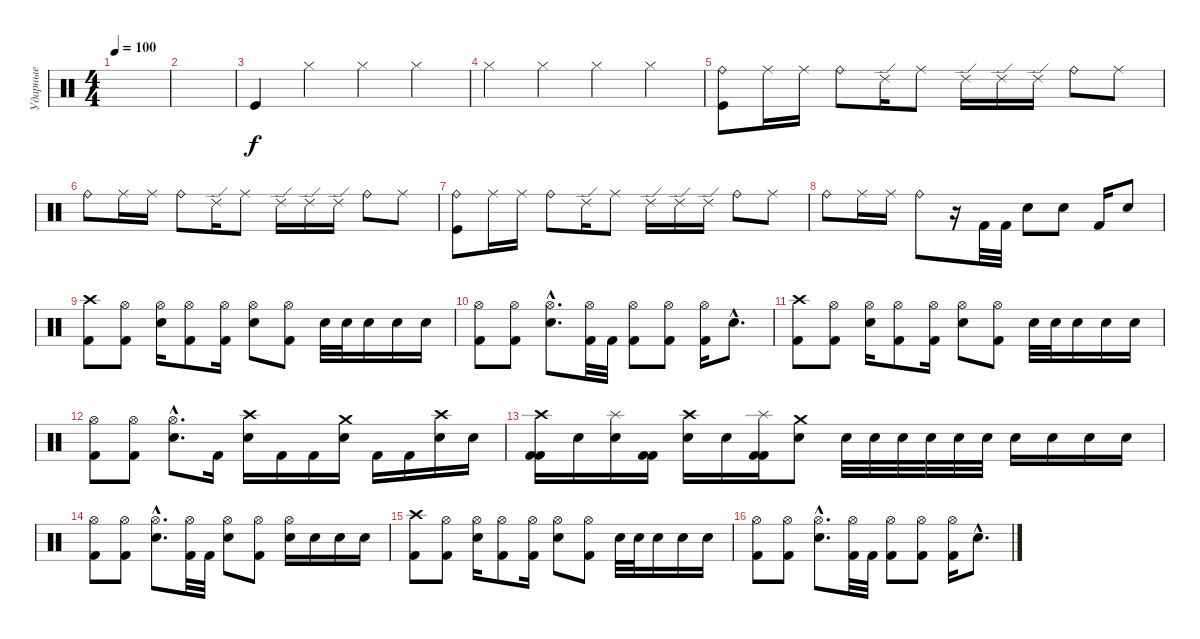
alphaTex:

\track ("Ударные" "Ударные") {instrument percussion}
\staff {score}
\articulation defaults
\ts (4 4)
\tempo 100
\clef neutral
\ks c
|
|
"Kick (hit)".4 "Hi-Hat (closed)".4 "Hi-Hat (closed)".4 "Hi-Hat (closed)".4 |
"Hi-Hat (closed)".4 "Hi-Hat (closed)".4 "Hi-Hat (closed)".4 "Hi-Hat (closed)".4 |
("Ride (bell)" "Kick (hit)").8 "Ride (middle)".16 "Ride (middle)".16 "Ride (bell)".8 "Ride (edge) 2".16 "Ride (middle)".8 "Ride (edge) 2".16 "Ride (edge) 2".16 "Ride (edge) 2".16 "Ride (bell)".8 "Ride (middle)".8 |
"Ride (bell)".8 "Ride (middle)".16 "Ride (middle)".16 "Ride (bell)".8 "Ride (edge) 2".16 "Ride (middle)".8 "Ride (edge) 2".16 "Ride (edge) 2".16 "Ride (edge) 2".16 "Ride (bell)".8 "Ride (middle)".8 |
("Ride (bell)" "Kick (hit)").8 "Ride (middle)".16 "Ride (middle)".16 "Ride (bell)".8 "Ride (edge) 2".16 "Ride (middle)".8 "Ride (edge) 2".16 "Ride (edge) 2".16 "Ride (edge) 2".16 "Ride (bell)".8 "Ride (middle)".8 |
"Ride (bell)".8 "Ride (middle)".16 "Ride (middle)".16 "Ride (bell)".8 r.16 "Kick (hit) 2".32{volume 12} "Kick (hit) 2".32 "Electric Snare (hit)".8 "Electric Snare (hit)".8 "Kick (hit) 2".16 "Electric Snare (hit)".8 |
("Crash high (hit)" "Kick (hit) 2").8 ("Hi-Hat (open)" "Kick (hit) 2").8 ("Hi-Hat (open)" "Electric Snare (hit)").16 ("Hi-Hat (open)" "Kick (hit) 2").8 ("Hi-Hat (open)" "Kick (hit) 2").16 ("Hi-Hat (open)" "Electric Snare (hit)").8 ("Hi-Hat (open)" "Kick (hit) 2").8 "Electric Snare (hit)".32 "Electric Snare (hit)".32 "Electric Snare (hit)".16 "Electric Snare (hit)".16 "Electric Snare (hit)".16 |
("Hi-Hat (open)" "Kick (hit) 2").8 ("Hi-Hat (open)" "Kick (hit) 2").8 ("Hi-Hat (open)"{hac} "Electric Snare (hit)"{hac}).8{d} ("Hi-Hat (open)" "Kick (hit) 2").32 "Kick (hit) 2".32 ("Hi-Hat (open)" "Kick (hit) 2").8 ("Hi-Hat (open)" "Kick (hit) 2").8 ("Hi-Hat (open)" "Kick (hit) 2").16 "Electric Snare (hit)"{hac}.8{d} |
("Crash high (hit)" "Kick (hit) 2").8 ("Hi-Hat (open)" "Kick (hit) 2").8 ("Hi-Hat (open)" "Electric Snare (hit)").16 ("Hi-Hat (open)" "Kick (hit) 2").8 ("Hi-Hat (open)" "Kick (hit) 2").16 ("Hi-Hat (open)" "Electric Snare (hit)").8 ("Hi-Hat (open)" "Kick (hit) 2").8 "Electric Snare (hit)".32 "Electric Snare (hit)".32 "Electric Snare (hit)".16 "Electric Snare (hit)".16 "Electric Snare (hit)".16 |
("Hi-Hat (open)" "Kick (hit) 2").8 ("Hi-Hat (open)" "Kick (hit) 2").8 ("Hi-Hat (open)"{hac} "Electric Snare (hit)"{hac}).8{d} "Kick (hit) 2".16 ("Crash high (hit)" "Electric Snare (hit)").16 "Kick (hit) 2".16 "Kick (hit) 2".16 ("Crash medium (hit)" "Electric Snare (hit)").16 "Kick (hit) 2".16 "Kick (hit) 2".16 ("Crash high (hit)" "Electric Snare (hit)").16 "Electric Snare (hit)".16 |
("Crash high (hit)" "Kick (hit) 2" "Kick (hit) 2").16 "Electric Snare (hit)".16 ("Splash (hit)" "Electric Snare (hit)").16 ("Kick (hit) 2" "Kick (hit) 2").16 ("Crash high (hit)" "Electric Snare (hit)").16 "Electric Snare (hit)".16 ("Splash (hit)" "Kick (hit) 2" "Kick (hit) 2").16 ("Crash medium (hit)" "Electric Snare (hit)").8 "Electric Snare (hit)".32 "Electric Snare (hit)".32 "Electric Snare (hit)".32 "Electric Snare (hit)".32 "Electric Snare (hit)".32 "Electric Snare (hit)".32 "Electric Snare (hit)".16 "Electric Snare (hit)".16 "Electric Snare (hit)".16 "Electric Snare (hit)".16 |
("Hi-Hat (open)" "Kick (hit) 2").8 ("Hi-Hat (open)" "Kick (hit) 2").8 ("Hi-Hat (open)"{hac} "Electric Snare (hit)"{hac}).8{d} ("Hi-Hat (open)" "Kick (hit) 2").32 "Kick (hit) 2".32 ("Hi-Hat (open)" "Electric Snare (hit)").8 ("Hi-Hat (open)" "Kick (hit) 2").8 ("Hi-Hat (open)" "Electric Snare (hit)").16 "Electric Snare (hit)".16 "Electric Snare (hit)".16 "Electric Snare (hit)".16 |
("Crash high (hit)" "Kick (hit) 2").8 ("Hi-Hat (open)" "Kick (hit) 2").8 ("Hi-Hat (open)" "Electric Snare (hit)").16 ("Hi-Hat (open)" "Kick (hit) 2").8 ("Hi-Hat (open)" "Kick (hit) 2").16 ("Hi-Hat (open)" "Electric Snare (hit)").8 ("Hi-Hat (open)" "Kick (hit) 2").8 "Electric Snare (hit)".32 "Electric Snare (hit)".32 "Electric Snare (hit)".16 "Electric Snare (hit)".16 "Electric Snare (hit)".16 |
("Hi-Hat (open)" "Kick (hit) 2").8 ("Hi-Hat (open)" "Kick (hit) 2").8 ("Hi-Hat (open)"{hac} "Electric Snare (hit)"{hac}).8{d} ("Hi-Hat (open)" "Kick (hit) 2").32 "Kick (hit) 2".32 ("Hi-Hat (open)" "Kick (hit) 2").8 ("Hi-Hat (open)" "Kick (hit) 2").8 ("Hi-Hat (open)" "Kick (hit) 2").16 "Electric Snare (hit)"{hac}.8{d}
